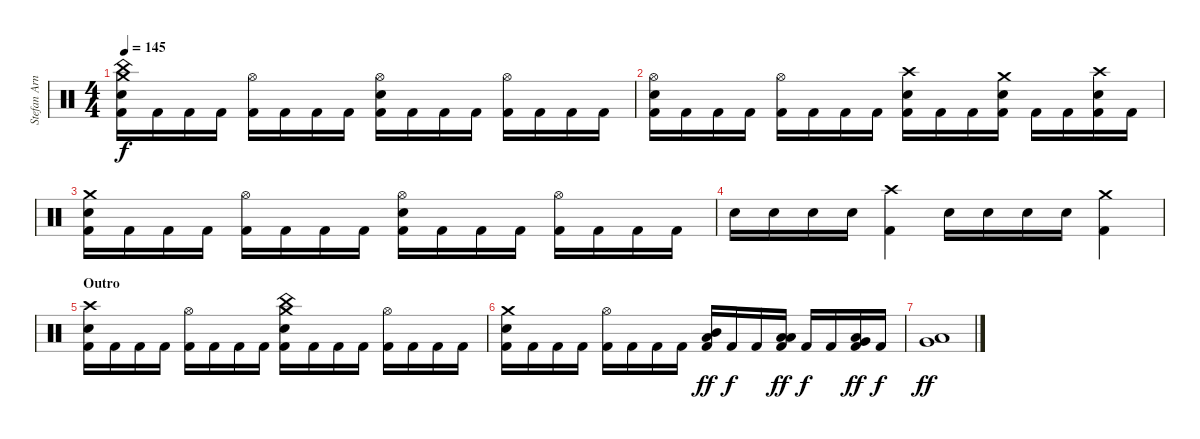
\track ("Stefan Arnold" "Stefan Arn") {instrument percussion}
\staff {score}
\articulation defaults
\ts (4 4)
\tempo 145
\clef neutral
\ks c
("Crash medium (hit)" "China (hit)" "Electric Snare (hit)" "Kick (hit) 2").16{dy f} "Kick (hit) 2".16 "Kick (hit) 2".16 "Kick (hit) 2".16 ("Hi-Hat (open)" "Kick (hit) 2").16 "Kick (hit) 2".16 "Kick (hit) 2".16 "Kick (hit) 2".16 ("Hi-Hat (open)" "Electric Snare (hit)" "Kick (hit) 2").16 "Kick (hit) 2".16 "Kick (hit) 2".16 "Kick (hit) 2".16 ("Hi-Hat (open)" "Kick (hit) 2").16 "Kick (hit) 2".16 "Kick (hit) 2".16 "Kick (hit) 2".16 |
("Hi-Hat (open)" "Electric Snare (hit)" "Kick (hit) 2").16 "Kick (hit) 2".16 "Kick (hit) 2".16 "Kick (hit) 2".16 ("Hi-Hat (open)" "Kick (hit) 2").16 "Kick (hit) 2".16 "Kick (hit) 2".16 "Kick (hit) 2".16 ("Crash high (hit)" "Electric Snare (hit)" "Kick (hit) 2").16 "Kick (hit) 2".16 "Kick (hit) 2".16 ("Crash medium (hit)" "Electric Snare (hit)" "Kick (hit) 2").16 "Kick (hit) 2".16 "Kick (hit) 2".16 ("Crash high (hit)" "Electric Snare (hit)" "Kick (hit) 2").16 "Kick (hit) 2".16 |
("Crash medium (hit)" "Electric Snare (hit)" "Kick (hit) 2").16 "Kick (hit) 2".16 "Kick (hit) 2".16 "Kick (hit) 2".16 ("Hi-Hat (open)" "Kick (hit) 2").16 "Kick (hit) 2".16 "Kick (hit) 2".16 "Kick (hit) 2".16 ("Hi-Hat (open)" "Electric Snare (hit)" "Kick (hit) 2").16 "Kick (hit) 2".16 "Kick (hit) 2".16 "Kick (hit) 2".16 ("Hi-Hat (open)" "Kick (hit) 2").16 "Kick (hit) 2".16 "Kick (hit) 2".16 "Kick (hit) 2".16 |
"Electric Snare (hit)".16 "Electric Snare (hit)".16 "Electric Snare (hit)".16 "Electric Snare (hit)".16 ("Crash high (hit)" "Kick (hit) 2").4 "Electric Snare (hit)".16 "Electric Snare (hit)".16 "Electric Snare (hit)".16 "Electric Snare (hit)".16 ("Crash medium (hit)" "Kick (hit) 2").4 |
\section ("" "Outro")
("Crash high (hit)" "Electric Snare (hit)" "Kick (hit) 2").16 "Kick (hit) 2".16 "Kick (hit) 2".16 "Kick (hit) 2".16 ("Hi-Hat (open)" "Kick (hit) 2").16 "Kick (hit) 2".16 "Kick (hit) 2".16 "Kick (hit) 2".16 ("Crash medium (hit)" "China (hit)" "Electric Snare (hit)" "Kick (hit) 2").16 "Kick (hit) 2".16 "Kick (hit) 2".16 "Kick (hit) 2".16 ("Hi-Hat (open)" "Kick (hit) 2").16 "Kick (hit) 2".16 "Kick (hit) 2".16 "Kick (hit) 2".16 |
("Crash medium (hit)" "Electric Snare (hit)" "Kick (hit) 2").16 "Kick (hit) 2".16 "Kick (hit) 2".16 "Kick (hit) 2".16 ("Hi-Hat (open)" "Kick (hit) 2").16 "Kick (hit) 2".16 "Kick (hit) 2".16 "Kick (hit) 2".16 ("Mid Tom (hit)" "Low Floor Tom (hit)" "Kick (hit) 2").16{dy ff} "Kick (hit) 2".16{dy f} "Kick (hit) 2".16 ("Low Tom (hit)" "Low Floor Tom (hit)" "Kick (hit) 2").16{dy ff} "Kick (hit) 2".16{dy f} "Kick (hit) 2".16 ("Very Low Tom (hit)" "Low Floor Tom (hit)" "Kick (hit) 2").16{dy ff} "Kick (hit) 2".16{dy f} |
("Very Low Tom (hit)" "Low Floor Tom (hit)").1{dy ff}
